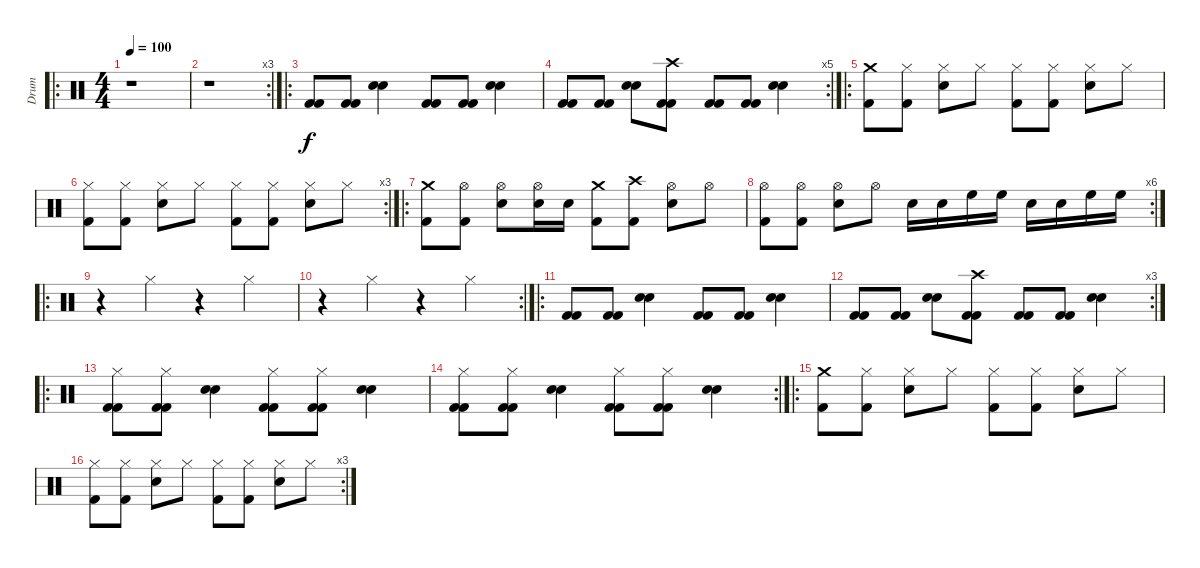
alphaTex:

\track ("Drum" "Drum") {instrument percussion}
\staff {score}
\articulation defaults
\ro
\ts (4 4)
\tempo 100
\clef neutral
\ks c
r.1{dy f} |
\rc 3
r.1 |
\ro
("Kick (hit) 2" "Kick (hit) 2").8 ("Kick (hit) 2" "Kick (hit) 2").8 ("Snare (hit) 2" "Snare (hit) 2").4 ("Kick (hit) 2" "Kick (hit) 2").8 ("Kick (hit) 2" "Kick (hit) 2").8 ("Snare (hit) 2" "Snare (hit) 2").4 |
\rc 5
("Kick (hit) 2" "Kick (hit) 2").8 ("Kick (hit) 2" "Kick (hit) 2").8 ("Snare (hit) 2" "Snare (hit) 2").8 ("Crash high (hit)" "Kick (hit) 2" "Kick (hit) 2").8 ("Kick (hit) 2" "Kick (hit) 2").8 ("Kick (hit) 2" "Kick (hit) 2").8 ("Snare (hit) 2" "Snare (hit) 2").4 |
\ro
("Crash medium (hit)" "Kick (hit) 2").8 ("Hi-Hat (closed)" "Kick (hit) 2").8 ("Hi-Hat (closed)" "Snare (hit) 2").8 "Hi-Hat (closed)".8 ("Hi-Hat (closed)" "Kick (hit) 2").8 ("Hi-Hat (closed)" "Kick (hit) 2").8 ("Hi-Hat (closed)" "Snare (hit) 2").8 "Hi-Hat (closed)".8 |
\rc 3
("Hi-Hat (closed)" "Kick (hit) 2").8 ("Hi-Hat (closed)" "Kick (hit) 2").8 ("Hi-Hat (closed)" "Snare (hit) 2").8 "Hi-Hat (closed)".8 ("Hi-Hat (closed)" "Kick (hit) 2").8 ("Hi-Hat (closed)" "Kick (hit) 2").8 ("Hi-Hat (closed)" "Snare (hit) 2").8 "Hi-Hat (closed)".8 |
\ro
("Crash medium (hit)" "Kick (hit) 2").8 ("Hi-Hat (open)" "Kick (hit) 2").8 ("Hi-Hat (open)" "Snare (hit) 2").8 ("Hi-Hat (open)" "Snare (hit) 2").16 "Snare (hit) 2".16 ("Crash medium (hit)" "Kick (hit) 2").8 ("Crash high (hit)" "Kick (hit) 2").8 ("Hi-Hat (open)" "Snare (hit) 2").8 "Hi-Hat (open)".8 |
\rc 6
("Hi-Hat (open)" "Kick (hit) 2").8 ("Hi-Hat (open)" "Kick (hit) 2").8 ("Hi-Hat (open)" "Snare (hit) 2").8 "Hi-Hat (open)".8 "Snare (hit) 2".16 "Snare (hit) 2".16 "High Floor Tom (hit)".16 "High Floor Tom (hit)".16 "Snare (hit) 2".16 "Snare (hit) 2".16 "High Floor Tom (hit)".16 "High Floor Tom (hit)".16 |
\ro
r.4 "Hi-Hat (closed)".4 r.4 "Hi-Hat (closed)".4 |
\rc 2
r.4 "Hi-Hat (closed)".4 r.4 "Hi-Hat (closed)".4 |
\ro
("Kick (hit) 2" "Kick (hit) 2").8 ("Kick (hit) 2" "Kick (hit) 2").8 ("Snare (hit) 2" "Snare (hit) 2").4 ("Kick (hit) 2" "Kick (hit) 2").8 ("Kick (hit) 2" "Kick (hit) 2").8 ("Snare (hit) 2" "Snare (hit) 2").4 |
\rc 3
("Kick (hit) 2" "Kick (hit) 2").8 ("Kick (hit) 2" "Kick (hit) 2").8 ("Snare (hit) 2" "Snare (hit) 2").8 ("Crash high (hit)" "Kick (hit) 2" "Kick (hit) 2").8 ("Kick (hit) 2" "Kick (hit) 2").8 ("Kick (hit) 2" "Kick (hit) 2").8 ("Snare (hit) 2" "Snare (hit) 2").4 |
\ro
("Kick (hit) 2" "Kick (hit) 2" "Hi-Hat (closed)").8 ("Kick (hit) 2" "Kick (hit) 2" "Hi-Hat (closed)").8 ("Snare (hit) 2" "Snare (hit) 2").4 ("Kick (hit) 2" "Kick (hit) 2" "Hi-Hat (closed)").8 ("Kick (hit) 2" "Kick (hit) 2" "Hi-Hat (closed)").8 ("Snare (hit) 2" "Snare (hit) 2").4 |
\rc 2
("Kick (hit) 2" "Kick (hit) 2" "Hi-Hat (closed)").8 ("Kick (hit) 2" "Kick (hit) 2" "Hi-Hat (closed)").8 ("Snare (hit) 2" "Snare (hit) 2").4 ("Kick (hit) 2" "Kick (hit) 2" "Hi-Hat (closed)").8 ("Kick (hit) 2" "Kick (hit) 2" "Hi-Hat (closed)").8 ("Snare (hit) 2" "Snare (hit) 2").4 |
\ro
("Crash medium (hit)" "Kick (hit) 2").8 ("Hi-Hat (closed)" "Kick (hit) 2").8 ("Hi-Hat (closed)" "Snare (hit) 2").8 "Hi-Hat (closed)".8 ("Hi-Hat (closed)" "Kick (hit) 2").8 ("Hi-Hat (closed)" "Kick (hit) 2").8 ("Hi-Hat (closed)" "Snare (hit) 2").8 "Hi-Hat (closed)".8 |
\rc 3
("Hi-Hat (closed)" "Kick (hit) 2").8 ("Hi-Hat (closed)" "Kick (hit) 2").8 ("Hi-Hat (closed)" "Snare (hit) 2").8 "Hi-Hat (closed)".8 ("Hi-Hat (closed)" "Kick (hit) 2").8 ("Hi-Hat (closed)" "Kick (hit) 2").8 ("Hi-Hat (closed)" "Snare (hit) 2").8 "Hi-Hat (closed)".8
